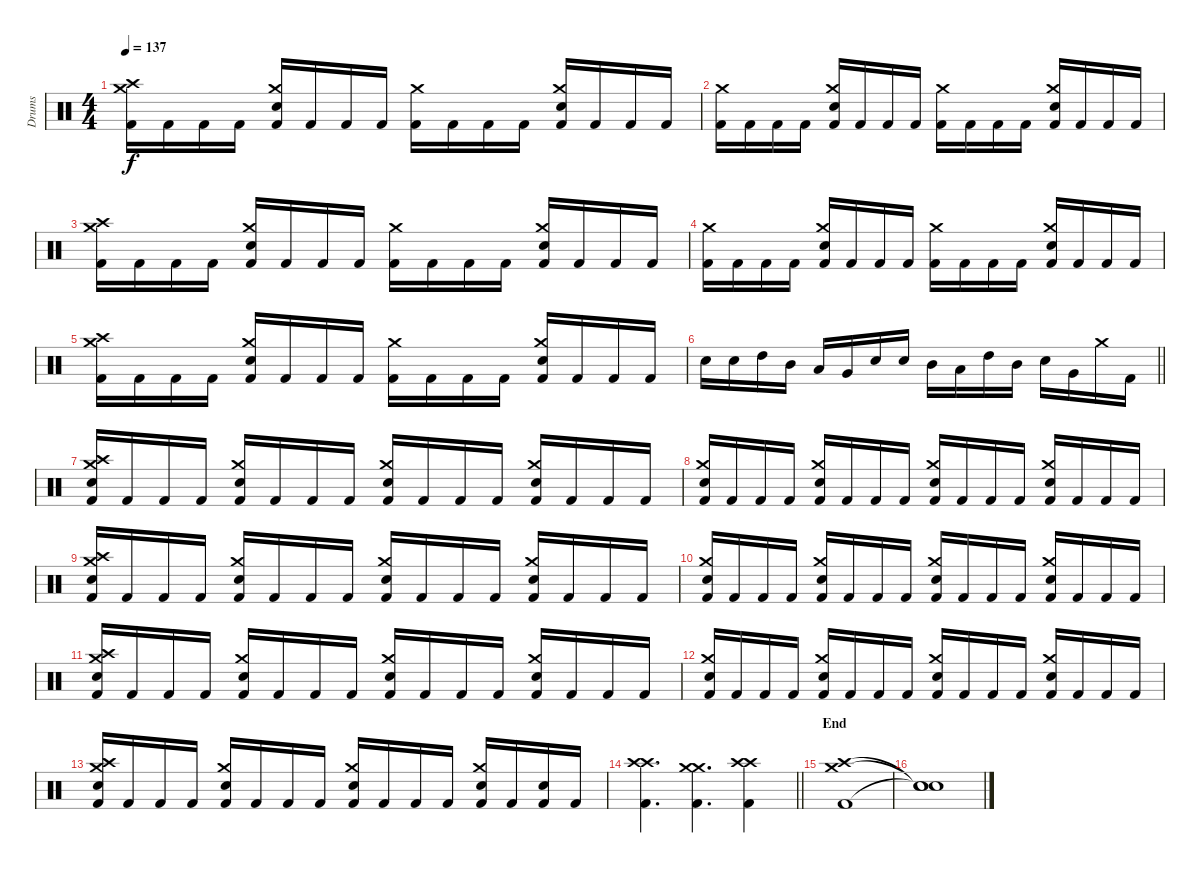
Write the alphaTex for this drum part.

\track ("Drums" "Drums") {instrument percussion}
\staff {score}
\articulation defaults
\ts (4 4)
\tempo 137
\clef neutral
\ks c
("Kick (hit) 2" "Crash medium (hit)" "Crash high (hit)").16{dy f} "Kick (hit) 2".16 "Kick (hit) 2".16 "Kick (hit) 2".16 ("Kick (hit) 2" "Snare (hit) 2" "Crash medium (hit)").16 "Kick (hit) 2".16 "Kick (hit) 2".16 "Kick (hit) 2".16 ("Kick (hit) 2" "Crash medium (hit)").16 "Kick (hit) 2".16 "Kick (hit) 2".16 "Kick (hit) 2".16 ("Kick (hit) 2" "Snare (hit) 2" "Crash medium (hit)").16 "Kick (hit) 2".16 "Kick (hit) 2".16 "Kick (hit) 2".16 |
("Kick (hit) 2" "Crash medium (hit)").16 "Kick (hit) 2".16 "Kick (hit) 2".16 "Kick (hit) 2".16 ("Kick (hit) 2" "Snare (hit) 2" "Crash medium (hit)").16 "Kick (hit) 2".16 "Kick (hit) 2".16 "Kick (hit) 2".16 ("Kick (hit) 2" "Crash medium (hit)").16 "Kick (hit) 2".16 "Kick (hit) 2".16 "Kick (hit) 2".16 ("Kick (hit) 2" "Snare (hit) 2" "Crash medium (hit)").16 "Kick (hit) 2".16 "Kick (hit) 2".16 "Kick (hit) 2".16 |
("Kick (hit) 2" "Crash medium (hit)" "Crash high (hit)").16 "Kick (hit) 2".16 "Kick (hit) 2".16 "Kick (hit) 2".16 ("Kick (hit) 2" "Snare (hit) 2" "Crash medium (hit)").16 "Kick (hit) 2".16 "Kick (hit) 2".16 "Kick (hit) 2".16 ("Kick (hit) 2" "Crash medium (hit)").16 "Kick (hit) 2".16 "Kick (hit) 2".16 "Kick (hit) 2".16 ("Kick (hit) 2" "Snare (hit) 2" "Crash medium (hit)").16 "Kick (hit) 2".16 "Kick (hit) 2".16 "Kick (hit) 2".16 |
("Kick (hit) 2" "Crash medium (hit)").16 "Kick (hit) 2".16 "Kick (hit) 2".16 "Kick (hit) 2".16 ("Kick (hit) 2" "Snare (hit) 2" "Crash medium (hit)").16 "Kick (hit) 2".16 "Kick (hit) 2".16 "Kick (hit) 2".16 ("Kick (hit) 2" "Crash medium (hit)").16 "Kick (hit) 2".16 "Kick (hit) 2".16 "Kick (hit) 2".16 ("Kick (hit) 2" "Snare (hit) 2" "Crash medium (hit)").16 "Kick (hit) 2".16 "Kick (hit) 2".16 "Kick (hit) 2".16 |
("Kick (hit) 2" "Crash medium (hit)" "Crash high (hit)").16 "Kick (hit) 2".16 "Kick (hit) 2".16 "Kick (hit) 2".16 ("Kick (hit) 2" "Snare (hit) 2" "Crash medium (hit)").16 "Kick (hit) 2".16 "Kick (hit) 2".16 "Kick (hit) 2".16 ("Kick (hit) 2" "Crash medium (hit)").16 "Kick (hit) 2".16 "Kick (hit) 2".16 "Kick (hit) 2".16 ("Kick (hit) 2" "Snare (hit) 2" "Crash medium (hit)").16 "Kick (hit) 2".16 "Kick (hit) 2".16 "Kick (hit) 2".16 |
\barLineRight lightlight "Snare (hit) 2".16 "Snare (hit) 2".16 "High Tom (hit)".16 "Mid Tom (hit)".16 "Low Tom (hit)".16 "Very Low Tom (hit)".16 "Snare (hit) 2".16 "Snare (hit) 2".16 "Mid Tom (hit)".16 "Low Tom (hit)".16 "High Tom (hit)".16 "Mid Tom (hit)".16 "Snare (hit) 2".16 "Very Low Tom (hit)".16 "Crash medium (hit)".16 "Kick (hit) 2".16
|
\section ("" "")
("Kick (hit) 2" "Snare (hit) 2" "Crash medium (hit)" "Crash high (hit)").16 "Kick (hit) 2".16 "Kick (hit) 2".16 "Kick (hit) 2".16 ("Kick (hit) 2" "Snare (hit) 2" "Crash medium (hit)").16 "Kick (hit) 2".16 "Kick (hit) 2".16 "Kick (hit) 2".16 ("Kick (hit) 2" "Snare (hit) 2" "Crash medium (hit)").16 "Kick (hit) 2".16 "Kick (hit) 2".16 "Kick (hit) 2".16 ("Kick (hit) 2" "Snare (hit) 2" "Crash medium (hit)").16 "Kick (hit) 2".16 "Kick (hit) 2".16 "Kick (hit) 2".16 |
("Kick (hit) 2" "Snare (hit) 2" "Crash medium (hit)").16 "Kick (hit) 2".16 "Kick (hit) 2".16 "Kick (hit) 2".16 ("Kick (hit) 2" "Snare (hit) 2" "Crash medium (hit)").16 "Kick (hit) 2".16 "Kick (hit) 2".16 "Kick (hit) 2".16 ("Kick (hit) 2" "Snare (hit) 2" "Crash medium (hit)").16 "Kick (hit) 2".16 "Kick (hit) 2".16 "Kick (hit) 2".16 ("Kick (hit) 2" "Snare (hit) 2" "Crash medium (hit)").16 "Kick (hit) 2".16 "Kick (hit) 2".16 "Kick (hit) 2".16 |
("Kick (hit) 2" "Snare (hit) 2" "Crash medium (hit)" "Crash high (hit)").16 "Kick (hit) 2".16 "Kick (hit) 2".16 "Kick (hit) 2".16 ("Kick (hit) 2" "Snare (hit) 2" "Crash medium (hit)").16 "Kick (hit) 2".16 "Kick (hit) 2".16 "Kick (hit) 2".16 ("Kick (hit) 2" "Snare (hit) 2" "Crash medium (hit)").16 "Kick (hit) 2".16 "Kick (hit) 2".16 "Kick (hit) 2".16 ("Kick (hit) 2" "Snare (hit) 2" "Crash medium (hit)").16 "Kick (hit) 2".16 "Kick (hit) 2".16 "Kick (hit) 2".16 |
("Kick (hit) 2" "Snare (hit) 2" "Crash medium (hit)").16 "Kick (hit) 2".16 "Kick (hit) 2".16 "Kick (hit) 2".16 ("Kick (hit) 2" "Snare (hit) 2" "Crash medium (hit)").16 "Kick (hit) 2".16 "Kick (hit) 2".16 "Kick (hit) 2".16 ("Kick (hit) 2" "Snare (hit) 2" "Crash medium (hit)").16 "Kick (hit) 2".16 "Kick (hit) 2".16 "Kick (hit) 2".16 ("Kick (hit) 2" "Snare (hit) 2" "Crash medium (hit)").16 "Kick (hit) 2".16 "Kick (hit) 2".16 "Kick (hit) 2".16 |
("Kick (hit) 2" "Snare (hit) 2" "Crash medium (hit)" "Crash high (hit)").16 "Kick (hit) 2".16 "Kick (hit) 2".16 "Kick (hit) 2".16 ("Kick (hit) 2" "Snare (hit) 2" "Crash medium (hit)").16 "Kick (hit) 2".16 "Kick (hit) 2".16 "Kick (hit) 2".16 ("Kick (hit) 2" "Snare (hit) 2" "Crash medium (hit)").16 "Kick (hit) 2".16 "Kick (hit) 2".16 "Kick (hit) 2".16 ("Kick (hit) 2" "Snare (hit) 2" "Crash medium (hit)").16 "Kick (hit) 2".16 "Kick (hit) 2".16 "Kick (hit) 2".16 |
("Kick (hit) 2" "Snare (hit) 2" "Crash medium (hit)").16 "Kick (hit) 2".16 "Kick (hit) 2".16 "Kick (hit) 2".16 ("Kick (hit) 2" "Snare (hit) 2" "Crash medium (hit)").16 "Kick (hit) 2".16 "Kick (hit) 2".16 "Kick (hit) 2".16 ("Kick (hit) 2" "Snare (hit) 2" "Crash medium (hit)").16 "Kick (hit) 2".16 "Kick (hit) 2".16 "Kick (hit) 2".16 ("Kick (hit) 2" "Snare (hit) 2" "Crash medium (hit)").16 "Kick (hit) 2".16 "Kick (hit) 2".16 "Kick (hit) 2".16 |
("Kick (hit) 2" "Snare (hit) 2" "Crash medium (hit)" "Crash high (hit)").16 "Kick (hit) 2".16 "Kick (hit) 2".16 "Kick (hit) 2".16 ("Kick (hit) 2" "Snare (hit) 2" "Crash medium (hit)").16 "Kick (hit) 2".16 "Kick (hit) 2".16 "Kick (hit) 2".16 ("Kick (hit) 2" "Snare (hit) 2" "Crash medium (hit)").16 "Kick (hit) 2".16 "Kick (hit) 2".16 "Kick (hit) 2".16 ("Kick (hit) 2" "Snare (hit) 2" "Crash medium (hit)").16 "Kick (hit) 2".16 ("Kick (hit) 2" "Snare (hit) 2").16 "Kick (hit) 2".16 |
\barLineRight lightlight
("Kick (hit) 2" "Crash high (hit)" "Crash high (hit)").4{d} ("Kick (hit) 2" "Crash medium (hit)" "Crash medium (hit)").4{d} ("Kick (hit) 2" "Crash high (hit)" "Crash high (hit)").4 |
\section ("" "End")
("Kick (hit) 2" "Crash high (hit)" "Crash medium (hit)").1 |
("Snare (hit)"{t} "Snare (hit)"{t} "Snare (hit)"{t}).1
